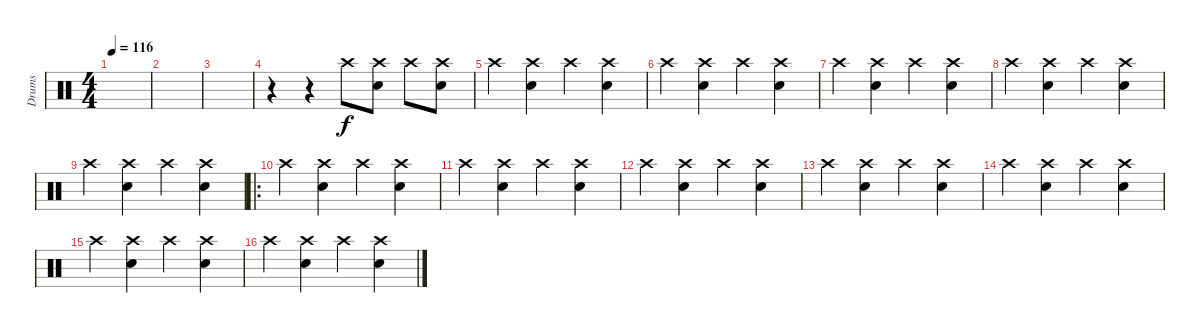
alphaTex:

\track ("Drums" "Drums") {instrument percussion}
\staff {score}
\articulation defaults
\ts (4 4)
\tempo 116
\clef neutral
\ks c
|
|
|
r.4 r.4 "Crash high (hit)".8 ("Electric Snare (hit)" "Crash high (hit)").8 "Crash high (hit)".8 ("Electric Snare (hit)" "Crash high (hit)").8 |
"Crash high (hit)".4 ("Crash high (hit)" "Electric Snare (hit)").4 "Crash high (hit)".4 ("Crash high (hit)" "Electric Snare (hit)").4 |
"Crash high (hit)".4 ("Crash high (hit)" "Electric Snare (hit)").4 "Crash high (hit)".4 ("Crash high (hit)" "Electric Snare (hit)").4 |
"Crash high (hit)".4 ("Crash high (hit)" "Electric Snare (hit)").4 "Crash high (hit)".4 ("Crash high (hit)" "Electric Snare (hit)").4 |
"Crash high (hit)".4 ("Crash high (hit)" "Electric Snare (hit)").4 "Crash high (hit)".4 ("Crash high (hit)" "Electric Snare (hit)").4 |
"Crash high (hit)".4 ("Crash high (hit)" "Electric Snare (hit)").4 "Crash high (hit)".4 ("Crash high (hit)" "Electric Snare (hit)").4 |
\ro "Crash high (hit)".4
("Crash high (hit)" "Electric Snare (hit)").4 "Crash high (hit)".4 ("Crash high (hit)" "Electric Snare (hit)").4 |
"Crash high (hit)".4 ("Crash high (hit)" "Electric Snare (hit)").4 "Crash high (hit)".4 ("Crash high (hit)" "Electric Snare (hit)").4 |
"Crash high (hit)".4 ("Crash high (hit)" "Electric Snare (hit)").4 "Crash high (hit)".4 ("Crash high (hit)" "Electric Snare (hit)").4 |
"Crash high (hit)".4 ("Crash high (hit)" "Electric Snare (hit)").4 "Crash high (hit)".4 ("Crash high (hit)" "Electric Snare (hit)").4 |
"Crash high (hit)".4 ("Crash high (hit)" "Electric Snare (hit)").4 "Crash high (hit)".4 ("Crash high (hit)" "Electric Snare (hit)").4 |
"Crash high (hit)".4 ("Crash high (hit)" "Electric Snare (hit)").4 "Crash high (hit)".4 ("Crash high (hit)" "Electric Snare (hit)").4 |
"Crash high (hit)".4 ("Crash high (hit)" "Electric Snare (hit)").4 "Crash high (hit)".4 ("Crash high (hit)" "Electric Snare (hit)").4
